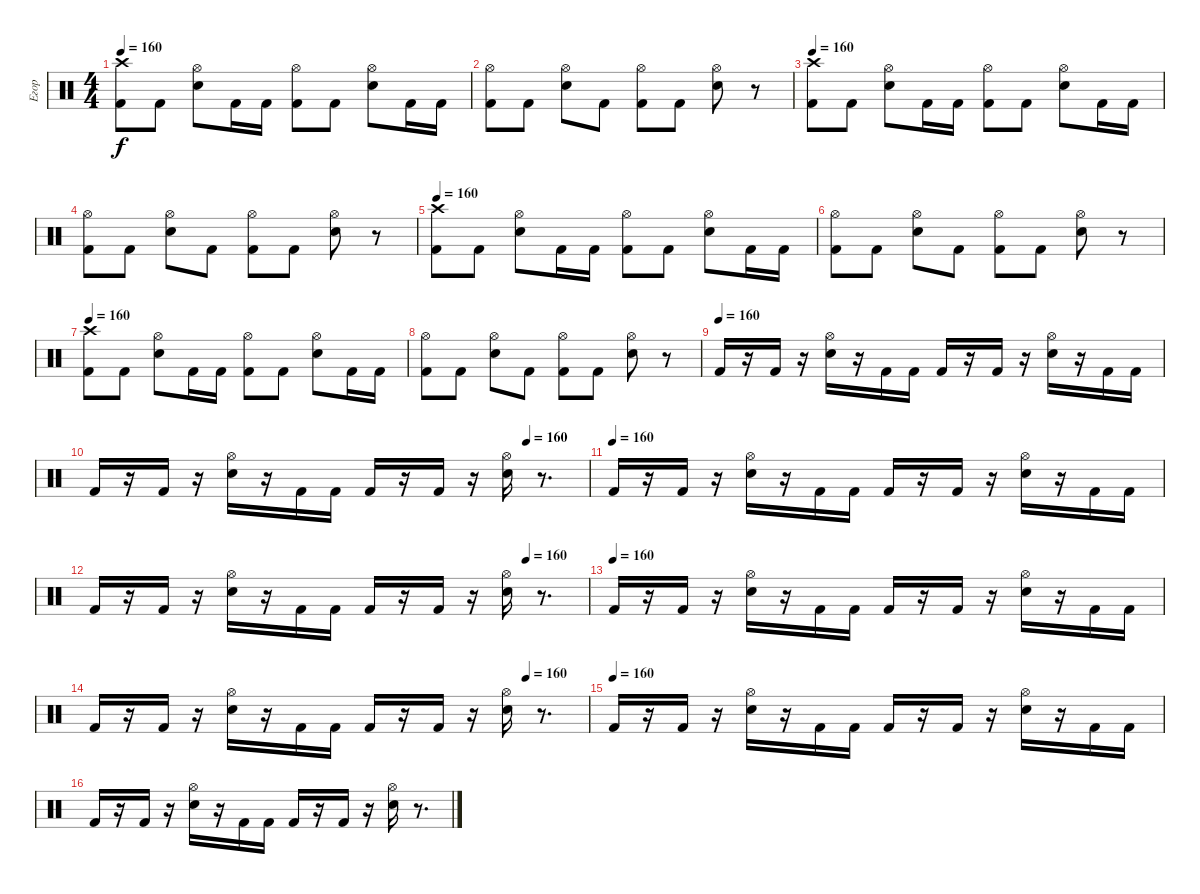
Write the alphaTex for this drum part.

\track ("Егор" "Егор") {instrument percussion}
\staff {score}
\articulation defaults
\ts (4 4)
\tempo 160
\clef neutral
\ks c
("Crash high (hit)" "Kick (hit) 2").8{dy f} "Kick (hit) 2".8 ("Hi-Hat (open)" "Snare (hit) 2").8 "Kick (hit) 2".16 "Kick (hit) 2".16 ("Hi-Hat (open)" "Kick (hit) 2").8 "Kick (hit) 2".8 ("Hi-Hat (open)" "Snare (hit) 2").8 "Kick (hit) 2".16 "Kick (hit) 2".16 |
("Hi-Hat (open)" "Kick (hit) 2").8 "Kick (hit) 2".8 ("Hi-Hat (open)" "Snare (hit) 2").8 "Kick (hit) 2".8 ("Hi-Hat (open)" "Kick (hit) 2").8 "Kick (hit) 2".8 ("Hi-Hat (open)" "Snare (hit) 2").8 r.8 |
\tempo 160
("Crash high (hit)" "Kick (hit) 2").8 "Kick (hit) 2".8 ("Hi-Hat (open)" "Snare (hit) 2").8 "Kick (hit) 2".16 "Kick (hit) 2".16 ("Hi-Hat (open)" "Kick (hit) 2").8 "Kick (hit) 2".8 ("Hi-Hat (open)" "Snare (hit) 2").8 "Kick (hit) 2".16 "Kick (hit) 2".16 |
("Hi-Hat (open)" "Kick (hit) 2").8 "Kick (hit) 2".8 ("Hi-Hat (open)" "Snare (hit) 2").8 "Kick (hit) 2".8 ("Hi-Hat (open)" "Kick (hit) 2").8 "Kick (hit) 2".8 ("Hi-Hat (open)" "Snare (hit) 2").8 r.8 |
\tempo 160
("Crash high (hit)" "Kick (hit) 2").8 "Kick (hit) 2".8 ("Hi-Hat (open)" "Snare (hit) 2").8 "Kick (hit) 2".16 "Kick (hit) 2".16 ("Hi-Hat (open)" "Kick (hit) 2").8 "Kick (hit) 2".8 ("Hi-Hat (open)" "Snare (hit) 2").8 "Kick (hit) 2".16 "Kick (hit) 2".16 |
("Hi-Hat (open)" "Kick (hit) 2").8 "Kick (hit) 2".8 ("Hi-Hat (open)" "Snare (hit) 2").8 "Kick (hit) 2".8 ("Hi-Hat (open)" "Kick (hit) 2").8 "Kick (hit) 2".8 ("Hi-Hat (open)" "Snare (hit) 2").8 r.8 |
\tempo 160
("Crash high (hit)" "Kick (hit) 2").8 "Kick (hit) 2".8 ("Hi-Hat (open)" "Snare (hit) 2").8 "Kick (hit) 2".16 "Kick (hit) 2".16 ("Hi-Hat (open)" "Kick (hit) 2").8 "Kick (hit) 2".8 ("Hi-Hat (open)" "Snare (hit) 2").8 "Kick (hit) 2".16 "Kick (hit) 2".16 |
("Hi-Hat (open)" "Kick (hit) 2").8 "Kick (hit) 2".8 ("Hi-Hat (open)" "Snare (hit) 2").8 "Kick (hit) 2".8 ("Hi-Hat (open)" "Kick (hit) 2").8 "Kick (hit) 2".8 ("Hi-Hat (open)" "Snare (hit) 2").8 r.8 |
\tempo (160)
"Kick (hit) 2".16 r.16 "Kick (hit) 2".16 r.16 ("Hi-Hat (open)" "Snare (hit) 2").16 r.16 "Kick (hit) 2".16 "Kick (hit) 2".16 "Kick (hit) 2".16 r.16 "Kick (hit) 2".16 r.16 ("Hi-Hat (open)" "Snare (hit) 2").16 r.16 "Kick (hit) 2".16 "Kick (hit) 2".16 |
\tempo (160 0.875)
"Kick (hit) 2".16 r.16 "Kick (hit) 2".16 r.16 ("Hi-Hat (open)" "Snare (hit) 2").16 r.16 "Kick (hit) 2".16 "Kick (hit) 2".16 "Kick (hit) 2".16 r.16 "Kick (hit) 2".16 r.16 ("Hi-Hat (open)" "Snare (hit) 2").16 r.8{d} |
\tempo (160)
"Kick (hit) 2".16 r.16 "Kick (hit) 2".16 r.16 ("Hi-Hat (open)" "Snare (hit) 2").16 r.16 "Kick (hit) 2".16 "Kick (hit) 2".16 "Kick (hit) 2".16 r.16 "Kick (hit) 2".16 r.16 ("Hi-Hat (open)" "Snare (hit) 2").16 r.16 "Kick (hit) 2".16 "Kick (hit) 2".16 |
\tempo (160 0.875)
"Kick (hit) 2".16 r.16 "Kick (hit) 2".16 r.16 ("Hi-Hat (open)" "Snare (hit) 2").16 r.16 "Kick (hit) 2".16 "Kick (hit) 2".16 "Kick (hit) 2".16 r.16 "Kick (hit) 2".16 r.16 ("Hi-Hat (open)" "Snare (hit) 2").16 r.8{d} |
\tempo (160)
"Kick (hit) 2".16 r.16 "Kick (hit) 2".16 r.16 ("Hi-Hat (open)" "Snare (hit) 2").16 r.16 "Kick (hit) 2".16 "Kick (hit) 2".16 "Kick (hit) 2".16 r.16 "Kick (hit) 2".16 r.16 ("Hi-Hat (open)" "Snare (hit) 2").16 r.16 "Kick (hit) 2".16 "Kick (hit) 2".16 |
\tempo (160 0.875)
"Kick (hit) 2".16 r.16 "Kick (hit) 2".16 r.16 ("Hi-Hat (open)" "Snare (hit) 2").16 r.16 "Kick (hit) 2".16 "Kick (hit) 2".16 "Kick (hit) 2".16 r.16 "Kick (hit) 2".16 r.16 ("Hi-Hat (open)" "Snare (hit) 2").16 r.8{d} |
\tempo (160)
"Kick (hit) 2".16 r.16 "Kick (hit) 2".16 r.16 ("Hi-Hat (open)" "Snare (hit) 2").16 r.16 "Kick (hit) 2".16 "Kick (hit) 2".16 "Kick (hit) 2".16 r.16 "Kick (hit) 2".16 r.16 ("Hi-Hat (open)" "Snare (hit) 2").16 r.16 "Kick (hit) 2".16 "Kick (hit) 2".16 |
"Kick (hit) 2".16 r.16 "Kick (hit) 2".16 r.16 ("Hi-Hat (open)" "Snare (hit) 2").16 r.16 "Kick (hit) 2".16 "Kick (hit) 2".16 "Kick (hit) 2".16 r.16 "Kick (hit) 2".16 r.16 ("Hi-Hat (open)" "Snare (hit) 2").16 r.8{d}
